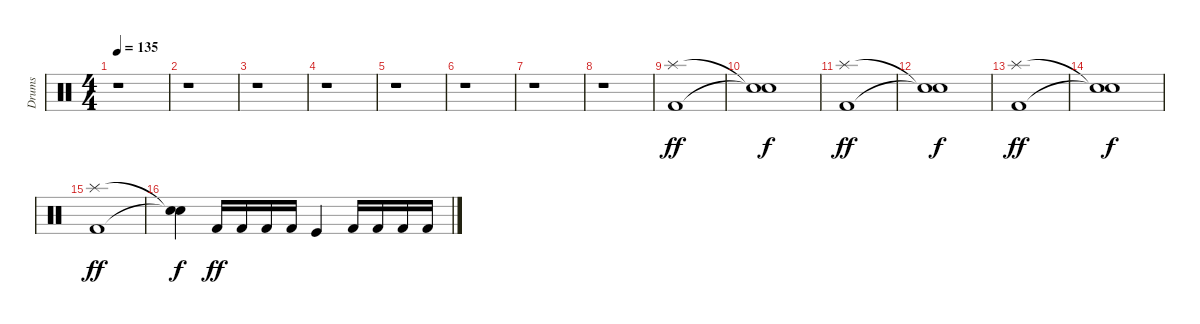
\track ("Drums" "Drums") {instrument percussion}
\staff {score}
\articulation defaults
\ts (4 4)
\tempo 135
\clef neutral
\ks c
r.1{dy ff} |
r.1 |
r.1 |
r.1 |
r.1 |
r.1 |
r.1 |
r.1 |
("Kick (hit) 2" "Splash (hit)").1 |
("Snare (hit)"{t} "Snare (hit)"{t}).1{dy f} |
("Kick (hit) 2" "Splash (hit)").1{dy ff} |
("Snare (hit)"{t} "Snare (hit)"{t}).1{dy f} |
("Kick (hit) 2" "Splash (hit)").1{dy ff} |
("Snare (hit)"{t} "Snare (hit)"{t}).1{dy f} |
("Kick (hit) 2" "Splash (hit)").1{dy ff} |
("Snare (hit)"{t} "Snare (hit)"{t}).4{dy f} "Kick (hit) 2".16{dy ff} "Kick (hit) 2".16 "Kick (hit) 2".16 "Kick (hit) 2".16 "Kick (hit)".4 "Kick (hit) 2".16 "Kick (hit) 2".16 "Kick (hit) 2".16 "Kick (hit) 2".16
